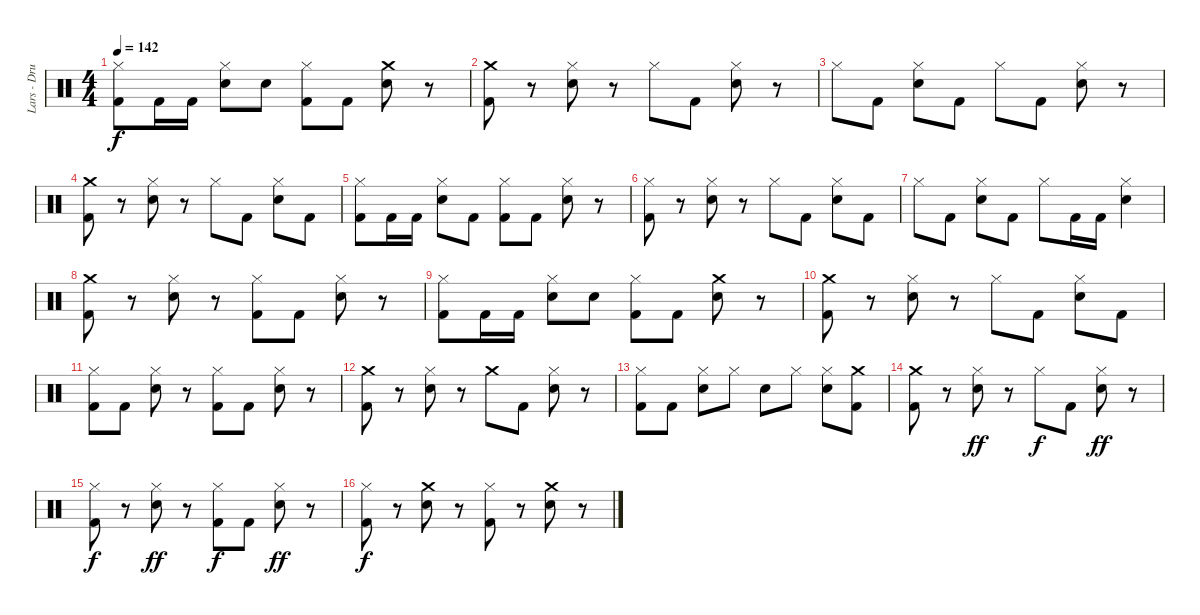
\track ("Lars - Drums" "Lars - Dru") {instrument percussion}
\staff {score}
\articulation defaults
\ts (4 4)
\tempo 142
\clef neutral
\ks c
("Hi-Hat (closed)" "Kick (hit) 2").8{dy f} "Kick (hit) 2".16 "Kick (hit) 2".16 ("Hi-Hat (closed)" "Snare (hit) 2").8 "Snare (hit) 2".8 ("Hi-Hat (closed)" "Kick (hit) 2").8 "Kick (hit) 2".8 ("Crash medium (hit)" "Snare (hit) 2").8 r.8 |
("Crash medium (hit)" "Kick (hit) 2").8 r.8 ("Hi-Hat (closed)" "Snare (hit) 2").8 r.8 "Hi-Hat (closed)".8 "Kick (hit) 2".8 ("Hi-Hat (closed)" "Snare (hit) 2").8 r.8 |
"Hi-Hat (closed)".8 "Kick (hit) 2".8 ("Hi-Hat (closed)" "Snare (hit) 2").8 "Kick (hit) 2".8 "Hi-Hat (closed)".8 "Kick (hit) 2".8 ("Hi-Hat (closed)" "Snare (hit) 2").8 r.8 |
("Crash medium (hit)" "Kick (hit) 2").8 r.8 ("Hi-Hat (closed)" "Snare (hit) 2").8 r.8 "Hi-Hat (closed)".8 "Kick (hit) 2".8 ("Hi-Hat (closed)" "Snare (hit) 2").8 "Kick (hit) 2".8 |
("Hi-Hat (closed)" "Kick (hit) 2").8 "Kick (hit) 2".16 "Kick (hit) 2".16 ("Hi-Hat (closed)" "Snare (hit) 2").8 "Kick (hit) 2".8 ("Hi-Hat (closed)" "Kick (hit) 2").8 "Kick (hit) 2".8 ("Hi-Hat (closed)" "Snare (hit) 2").8 r.8 |
("Hi-Hat (closed)" "Kick (hit) 2").8 r.8 ("Hi-Hat (closed)" "Snare (hit) 2").8 r.8 "Hi-Hat (closed)".8 "Kick (hit) 2".8 ("Hi-Hat (closed)" "Snare (hit) 2").8 "Kick (hit) 2".8 |
"Hi-Hat (closed)".8 "Kick (hit) 2".8 ("Hi-Hat (closed)" "Snare (hit) 2").8 "Kick (hit) 2".8 "Hi-Hat (closed)".8 "Kick (hit) 2".16 "Kick (hit) 2".16 ("Hi-Hat (closed)" "Snare (hit) 2").4 |
("Crash medium (hit)" "Kick (hit) 2").8 r.8 ("Hi-Hat (closed)" "Snare (hit) 2").8 r.8 ("Hi-Hat (closed)" "Kick (hit) 2").8 "Kick (hit) 2".8 ("Hi-Hat (closed)" "Snare (hit) 2").8 r.8 |
("Hi-Hat (closed)" "Kick (hit) 2").8 "Kick (hit) 2".16 "Kick (hit) 2".16 ("Hi-Hat (closed)" "Snare (hit) 2").8 "Snare (hit) 2".8 ("Hi-Hat (closed)" "Kick (hit) 2").8 "Kick (hit) 2".8 ("Crash medium (hit)" "Snare (hit) 2").8 r.8 |
("Crash medium (hit)" "Kick (hit) 2").8 r.8 ("Hi-Hat (closed)" "Snare (hit) 2").8 r.8 "Hi-Hat (closed)".8 "Kick (hit) 2".8 ("Hi-Hat (closed)" "Snare (hit) 2").8 "Kick (hit) 2".8 |
("Hi-Hat (closed)" "Kick (hit) 2").8 "Kick (hit) 2".8 ("Hi-Hat (closed)" "Snare (hit) 2").8 r.8 ("Hi-Hat (closed)" "Kick (hit) 2").8 "Kick (hit) 2".8 ("Hi-Hat (closed)" "Snare (hit) 2").8 r.8 |
("Crash medium (hit)" "Kick (hit) 2").8 r.8 ("Hi-Hat (closed)" "Snare (hit) 2").8 r.8 "Crash medium (hit)".8 "Kick (hit) 2".8 ("Hi-Hat (closed)" "Snare (hit) 2").8 r.8 |
("Hi-Hat (closed)" "Kick (hit) 2").8 "Kick (hit) 2".8 ("Hi-Hat (closed)" "Snare (hit) 2").8 "Hi-Hat (closed)".8 "Snare (hit) 2".8 "Hi-Hat (closed)".8 ("Hi-Hat (closed)" "Snare (hit) 2").8 ("Crash medium (hit)" "Kick (hit) 2").8 |
("Crash medium (hit)" "Kick (hit) 2").8 r.8 ("Snare (hit) 2" "Hi-Hat (closed)").8{dy ff} r.8 "Hi-Hat (closed)".8{dy f} "Kick (hit) 2".8 ("Snare (hit) 2" "Hi-Hat (closed)").8{dy ff} r.8 |
("Hi-Hat (closed)" "Kick (hit) 2").8{dy f} r.8 ("Snare (hit) 2" "Hi-Hat (closed)").8{dy ff} r.8 ("Hi-Hat (closed)" "Kick (hit) 2").8{dy f} "Kick (hit) 2".8 ("Snare (hit) 2" "Hi-Hat (closed)").8{dy ff} r.8 |
("Hi-Hat (closed)" "Kick (hit) 2").8{dy f} r.8 ("Crash medium (hit)" "Snare (hit) 2").8 r.8 ("Hi-Hat (closed)" "Kick (hit) 2").8 r.8 ("Crash medium (hit)" "Snare (hit) 2").8 r.8
